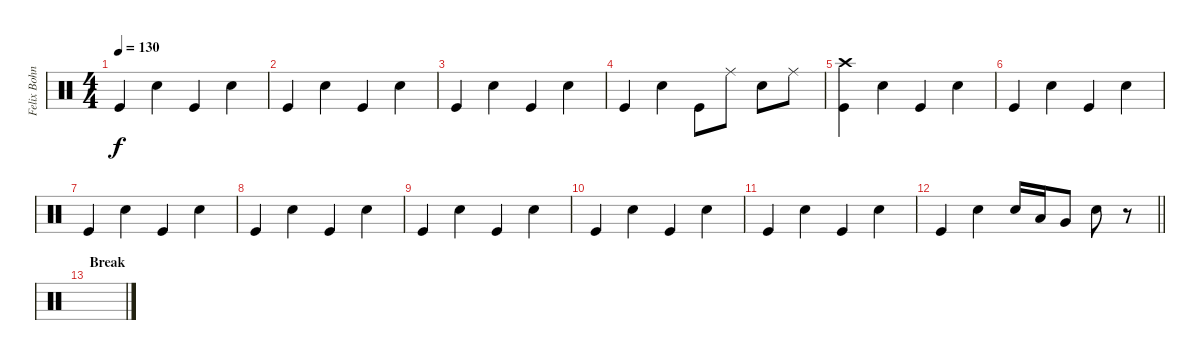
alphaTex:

\track ("Felix Bohnke" "Felix Bohn") {instrument percussion}
\staff {score}
\articulation defaults
\ts (4 4)
\tempo 130
\clef neutral
\ks c "Kick (hit)".4{dy f} "Snare (hit) 2".4 "Kick (hit)".4 "Snare (hit) 2".4
|
"Kick (hit)".4 "Snare (hit) 2".4 "Kick (hit)".4 "Snare (hit) 2".4 |
"Kick (hit)".4 "Snare (hit) 2".4 "Kick (hit)".4 "Snare (hit) 2".4 |
"Kick (hit)".4 "Snare (hit) 2".4 "Kick (hit)".8 "Ride (middle)".8 "Snare (hit) 2".8 "Ride (middle)".8 |
("Crash high (hit)" "Kick (hit)").4 "Snare (hit) 2".4 "Kick (hit)".4 "Snare (hit) 2".4 |
"Kick (hit)".4 "Snare (hit) 2".4 "Kick (hit)".4 "Snare (hit) 2".4 |
"Kick (hit)".4 "Snare (hit) 2".4 "Kick (hit)".4 "Snare (hit) 2".4 |
"Kick (hit)".4 "Snare (hit) 2".4 "Kick (hit)".4 "Snare (hit) 2".4 |
"Kick (hit)".4 "Snare (hit) 2".4 "Kick (hit)".4 "Snare (hit) 2".4 |
"Kick (hit)".4 "Snare (hit) 2".4 "Kick (hit)".4 "Snare (hit) 2".4 |
"Kick (hit)".4 "Snare (hit) 2".4 "Kick (hit)".4 "Snare (hit) 2".4 |
\barLineRight lightlight "Kick (hit)".4 "Snare (hit) 2".4 "Snare (hit) 2".16 "Low Tom (hit)".16 "Very Low Tom (hit)".8 "Snare (hit) 2".8
r.8 |
\section ("" "Break")
